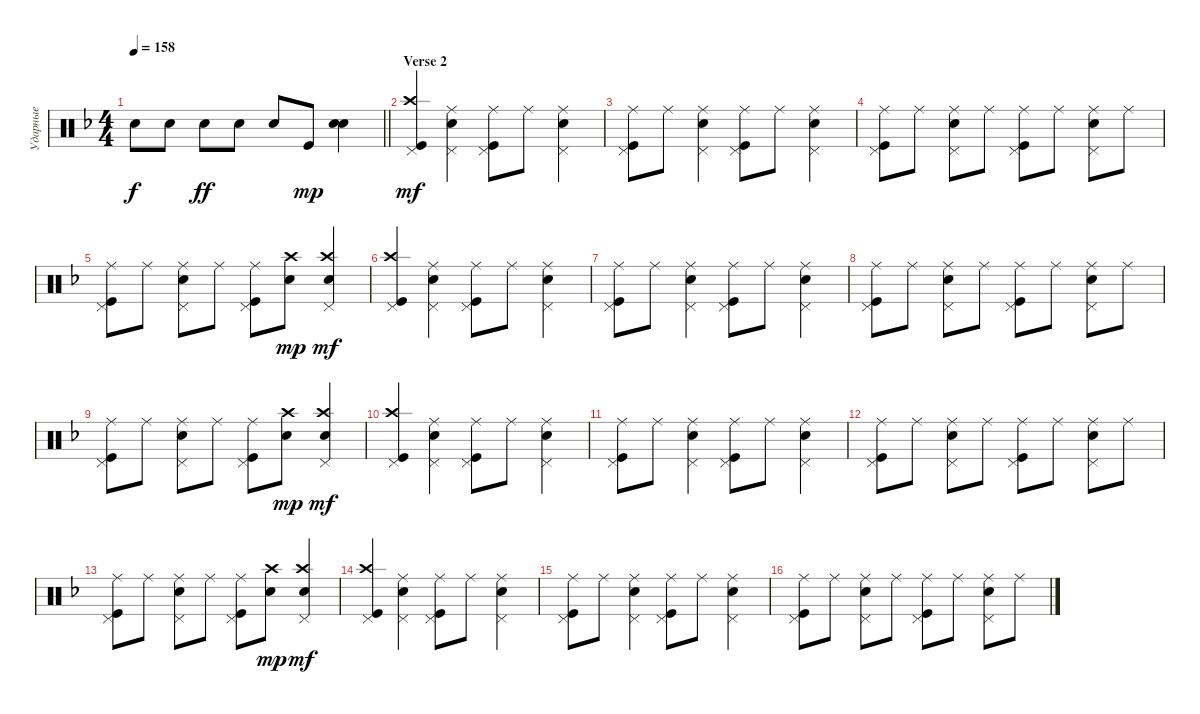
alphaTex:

\track ("Ударные" "Ударные") {instrument percussion}
\staff {score}
\articulation defaults
\ts (4 4)
\tempo 158
\clef neutral
\barLineRight lightlight
\ks dminor "Snare (hit) 2".8{dy f} "Snare (hit) 2".8 "Snare (hit) 2".8{dy ff} "Snare (hit) 2".8 "Snare (hit) 2".8 "Kick (hit)".8{dy mp}
("Snare (hit) 2" "Snare (hit) 2").4{bd 240} |
\section ("" "Verse 2")
("Kick (hit)" "Crash high (hit)" "Pedal Hi-Hat (hit)").4{dy mf} ("Ride (middle)" "Snare (hit) 2" "Pedal Hi-Hat (hit)").4 ("Ride (middle)" "Kick (hit)" "Pedal Hi-Hat (hit)").8 "Ride (middle)".8 ("Snare (hit) 2" "Pedal Hi-Hat (hit)" "Ride (middle)").4 |
("Ride (middle)" "Kick (hit)" "Pedal Hi-Hat (hit)").8 "Ride (middle)".8 ("Snare (hit) 2" "Pedal Hi-Hat (hit)" "Ride (middle)").4 ("Ride (middle)" "Kick (hit)" "Pedal Hi-Hat (hit)").8 "Ride (middle)".8 ("Snare (hit) 2" "Pedal Hi-Hat (hit)" "Ride (middle)").4 |
("Ride (middle)" "Kick (hit)" "Pedal Hi-Hat (hit)").8 "Ride (middle)".8 ("Snare (hit) 2" "Pedal Hi-Hat (hit)" "Ride (middle)").8 "Ride (middle)".8 ("Ride (middle)" "Kick (hit)" "Pedal Hi-Hat (hit)").8 "Ride (middle)".8 ("Snare (hit) 2" "Pedal Hi-Hat (hit)" "Ride (middle)").8 "Ride (middle)".8 |
("Ride (middle)" "Kick (hit)" "Pedal Hi-Hat (hit)").8 "Ride (middle)".8 ("Snare (hit) 2" "Pedal Hi-Hat (hit)" "Ride (middle)").8 "Ride (middle)".8 ("Ride (middle)" "Kick (hit)" "Pedal Hi-Hat (hit)").8 ("Crash high (hit)" "Snare (hit) 2").8{dy mp} ("Crash high (hit)" "Snare (hit) 2" "Pedal Hi-Hat (hit)").4{dy mf} |
("Kick (hit)" "Crash high (hit)" "Pedal Hi-Hat (hit)").4 ("Ride (middle)" "Snare (hit) 2" "Pedal Hi-Hat (hit)").4 ("Ride (middle)" "Kick (hit)" "Pedal Hi-Hat (hit)").8 "Ride (middle)".8 ("Snare (hit) 2" "Pedal Hi-Hat (hit)" "Ride (middle)").4 |
("Ride (middle)" "Kick (hit)" "Pedal Hi-Hat (hit)").8 "Ride (middle)".8 ("Snare (hit) 2" "Pedal Hi-Hat (hit)" "Ride (middle)").4 ("Ride (middle)" "Kick (hit)" "Pedal Hi-Hat (hit)").8 "Ride (middle)".8 ("Snare (hit) 2" "Pedal Hi-Hat (hit)" "Ride (middle)").4 |
("Ride (middle)" "Kick (hit)" "Pedal Hi-Hat (hit)").8 "Ride (middle)".8 ("Snare (hit) 2" "Pedal Hi-Hat (hit)" "Ride (middle)").8 "Ride (middle)".8 ("Ride (middle)" "Kick (hit)" "Pedal Hi-Hat (hit)").8 "Ride (middle)".8 ("Snare (hit) 2" "Pedal Hi-Hat (hit)" "Ride (middle)").8 "Ride (middle)".8 |
("Ride (middle)" "Kick (hit)" "Pedal Hi-Hat (hit)").8 "Ride (middle)".8 ("Snare (hit) 2" "Pedal Hi-Hat (hit)" "Ride (middle)").8 "Ride (middle)".8 ("Ride (middle)" "Kick (hit)" "Pedal Hi-Hat (hit)").8 ("Crash high (hit)" "Snare (hit) 2").8{dy mp} ("Crash high (hit)" "Snare (hit) 2" "Pedal Hi-Hat (hit)").4{dy mf} |
("Kick (hit)" "Crash high (hit)" "Pedal Hi-Hat (hit)").4 ("Ride (middle)" "Snare (hit) 2" "Pedal Hi-Hat (hit)").4 ("Ride (middle)" "Kick (hit)" "Pedal Hi-Hat (hit)").8 "Ride (middle)".8 ("Snare (hit) 2" "Pedal Hi-Hat (hit)" "Ride (middle)").4 |
("Ride (middle)" "Kick (hit)" "Pedal Hi-Hat (hit)").8 "Ride (middle)".8 ("Snare (hit) 2" "Pedal Hi-Hat (hit)" "Ride (middle)").4 ("Ride (middle)" "Kick (hit)" "Pedal Hi-Hat (hit)").8 "Ride (middle)".8 ("Snare (hit) 2" "Pedal Hi-Hat (hit)" "Ride (middle)").4 |
("Ride (middle)" "Kick (hit)" "Pedal Hi-Hat (hit)").8 "Ride (middle)".8 ("Snare (hit) 2" "Pedal Hi-Hat (hit)" "Ride (middle)").8 "Ride (middle)".8 ("Ride (middle)" "Kick (hit)" "Pedal Hi-Hat (hit)").8 "Ride (middle)".8 ("Snare (hit) 2" "Pedal Hi-Hat (hit)" "Ride (middle)").8 "Ride (middle)".8 |
("Ride (middle)" "Kick (hit)" "Pedal Hi-Hat (hit)").8 "Ride (middle)".8 ("Snare (hit) 2" "Pedal Hi-Hat (hit)" "Ride (middle)").8 "Ride (middle)".8 ("Ride (middle)" "Kick (hit)" "Pedal Hi-Hat (hit)").8 ("Crash high (hit)" "Snare (hit) 2").8{dy mp} ("Crash high (hit)" "Snare (hit) 2" "Pedal Hi-Hat (hit)").4{dy mf} |
("Kick (hit)" "Crash high (hit)" "Pedal Hi-Hat (hit)").4 ("Ride (middle)" "Snare (hit) 2" "Pedal Hi-Hat (hit)").4 ("Ride (middle)" "Kick (hit)" "Pedal Hi-Hat (hit)").8 "Ride (middle)".8 ("Snare (hit) 2" "Pedal Hi-Hat (hit)" "Ride (middle)").4 |
("Ride (middle)" "Kick (hit)" "Pedal Hi-Hat (hit)").8 "Ride (middle)".8 ("Snare (hit) 2" "Pedal Hi-Hat (hit)" "Ride (middle)").4 ("Ride (middle)" "Kick (hit)" "Pedal Hi-Hat (hit)").8 "Ride (middle)".8 ("Snare (hit) 2" "Pedal Hi-Hat (hit)" "Ride (middle)").4 |
("Ride (middle)" "Kick (hit)" "Pedal Hi-Hat (hit)").8 "Ride (middle)".8 ("Snare (hit) 2" "Pedal Hi-Hat (hit)" "Ride (middle)").8 "Ride (middle)".8 ("Ride (middle)" "Kick (hit)" "Pedal Hi-Hat (hit)").8 "Ride (middle)".8 ("Snare (hit) 2" "Pedal Hi-Hat (hit)" "Ride (middle)").8 "Ride (middle)".8
